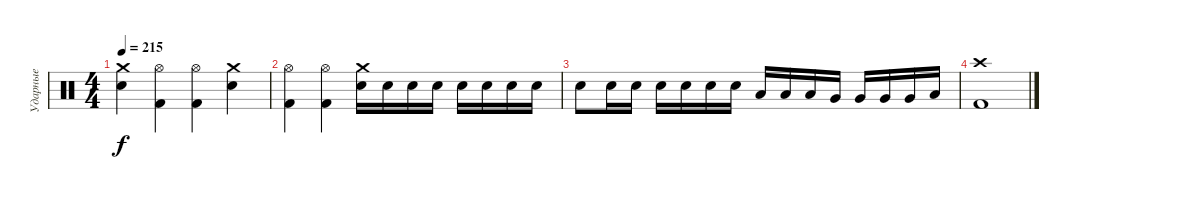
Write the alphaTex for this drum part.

\track ("Ударные" "Ударные") {instrument percussion}
\staff {score}
\articulation defaults
\ts (4 4)
\tempo 215
\clef neutral
\ks c
("Crash medium (hit)" "Snare (hit) 2").4{dy f} ("Hi-Hat (open)" "Kick (hit) 2").4 ("Hi-Hat (open)" "Kick (hit) 2").4 ("Crash medium (hit)" "Snare (hit) 2").4 |
("Hi-Hat (open)" "Kick (hit) 2").4 ("Hi-Hat (open)" "Kick (hit) 2").4 ("Crash medium (hit)" "Snare (hit) 2").16 "Snare (hit) 2".16 "Snare (hit) 2".16 "Snare (hit) 2".16 "Snare (hit) 2".16 "Snare (hit) 2".16 "Snare (hit) 2".16 "Snare (hit) 2".16 |
"Snare (hit) 2".8 "Snare (hit) 2".16 "Snare (hit) 2".16 "Snare (hit) 2".16 "Snare (hit) 2".16 "Snare (hit) 2".16 "Snare (hit) 2".16 "Low Tom (hit)".16 "Low Tom (hit)".16 "Low Tom (hit)".16 "Very Low Tom (hit)".16 "Very Low Tom (hit)".16 "Very Low Tom (hit)".16 "Very Low Tom (hit)".16 "Low Floor Tom (hit)".16 |
("Crash high (hit)" "Kick (hit) 2").1
